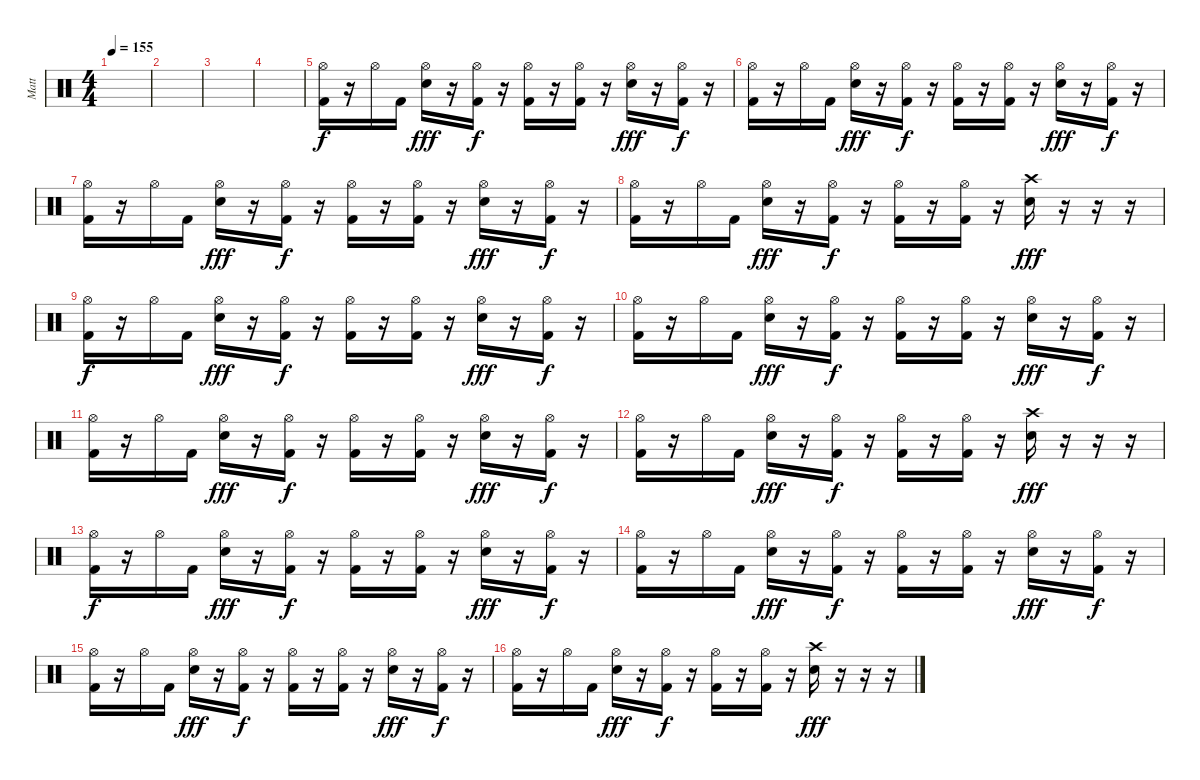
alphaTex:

\track ("Matt" "Matt") {instrument percussion}
\staff {score}
\articulation defaults
\ts (4 4)
\tempo 155
\clef neutral
\ks c
|
|
|
|
("Hi-Hat (open)" "Kick (hit) 2").16 r.16 "Hi-Hat (open)".16 "Kick (hit) 2".16 ("Hi-Hat (open)" "Snare (hit) 2").16{dy fff} r.16 ("Hi-Hat (open)" "Kick (hit) 2").16{dy f} r.16 ("Hi-Hat (open)" "Kick (hit) 2").16 r.16 ("Hi-Hat (open)" "Kick (hit) 2").16 r.16 ("Hi-Hat (open)" "Snare (hit) 2").16{dy fff} r.16 ("Hi-Hat (open)" "Kick (hit) 2").16{dy f} r.16 |
("Hi-Hat (open)" "Kick (hit) 2").16 r.16 "Hi-Hat (open)".16 "Kick (hit) 2".16 ("Hi-Hat (open)" "Snare (hit) 2").16{dy fff} r.16 ("Hi-Hat (open)" "Kick (hit) 2").16{dy f} r.16 ("Hi-Hat (open)" "Kick (hit) 2").16 r.16 ("Hi-Hat (open)" "Kick (hit) 2").16 r.16 ("Hi-Hat (open)" "Snare (hit) 2").16{dy fff} r.16 ("Hi-Hat (open)" "Kick (hit) 2").16{dy f} r.16 |
("Hi-Hat (open)" "Kick (hit) 2").16 r.16 "Hi-Hat (open)".16 "Kick (hit) 2".16 ("Hi-Hat (open)" "Snare (hit) 2").16{dy fff} r.16 ("Hi-Hat (open)" "Kick (hit) 2").16{dy f} r.16 ("Hi-Hat (open)" "Kick (hit) 2").16 r.16 ("Hi-Hat (open)" "Kick (hit) 2").16 r.16 ("Hi-Hat (open)" "Snare (hit) 2").16{dy fff} r.16 ("Hi-Hat (open)" "Kick (hit) 2").16{dy f} r.16 |
("Hi-Hat (open)" "Kick (hit) 2").16 r.16 "Hi-Hat (open)".16 "Kick (hit) 2".16 ("Hi-Hat (open)" "Snare (hit) 2").16{dy fff} r.16 ("Hi-Hat (open)" "Kick (hit) 2").16{dy f} r.16 ("Hi-Hat (open)" "Kick (hit) 2").16 r.16 ("Hi-Hat (open)" "Kick (hit) 2").16 r.16 ("Crash high (hit)" "Snare (hit) 2").16{dy fff} r.16 r.16 r.16 |
("Hi-Hat (open)" "Kick (hit) 2").16{dy f} r.16 "Hi-Hat (open)".16 "Kick (hit) 2".16 ("Hi-Hat (open)" "Snare (hit) 2").16{dy fff} r.16 ("Hi-Hat (open)" "Kick (hit) 2").16{dy f} r.16 ("Hi-Hat (open)" "Kick (hit) 2").16 r.16 ("Hi-Hat (open)" "Kick (hit) 2").16 r.16 ("Hi-Hat (open)" "Snare (hit) 2").16{dy fff} r.16 ("Hi-Hat (open)" "Kick (hit) 2").16{dy f} r.16 |
("Hi-Hat (open)" "Kick (hit) 2").16 r.16 "Hi-Hat (open)".16 "Kick (hit) 2".16 ("Hi-Hat (open)" "Snare (hit) 2").16{dy fff} r.16 ("Hi-Hat (open)" "Kick (hit) 2").16{dy f} r.16 ("Hi-Hat (open)" "Kick (hit) 2").16 r.16 ("Hi-Hat (open)" "Kick (hit) 2").16 r.16 ("Hi-Hat (open)" "Snare (hit) 2").16{dy fff} r.16 ("Hi-Hat (open)" "Kick (hit) 2").16{dy f} r.16 |
("Hi-Hat (open)" "Kick (hit) 2").16 r.16 "Hi-Hat (open)".16 "Kick (hit) 2".16 ("Hi-Hat (open)" "Snare (hit) 2").16{dy fff} r.16 ("Hi-Hat (open)" "Kick (hit) 2").16{dy f} r.16 ("Hi-Hat (open)" "Kick (hit) 2").16 r.16 ("Hi-Hat (open)" "Kick (hit) 2").16 r.16 ("Hi-Hat (open)" "Snare (hit) 2").16{dy fff} r.16 ("Hi-Hat (open)" "Kick (hit) 2").16{dy f} r.16 |
("Hi-Hat (open)" "Kick (hit) 2").16 r.16 "Hi-Hat (open)".16 "Kick (hit) 2".16 ("Hi-Hat (open)" "Snare (hit) 2").16{dy fff} r.16 ("Hi-Hat (open)" "Kick (hit) 2").16{dy f} r.16 ("Hi-Hat (open)" "Kick (hit) 2").16 r.16 ("Hi-Hat (open)" "Kick (hit) 2").16 r.16 ("Crash high (hit)" "Snare (hit) 2").16{dy fff} r.16 r.16 r.16 |
("Hi-Hat (open)" "Kick (hit) 2").16{dy f} r.16 "Hi-Hat (open)".16 "Kick (hit) 2".16 ("Hi-Hat (open)" "Snare (hit) 2").16{dy fff} r.16 ("Hi-Hat (open)" "Kick (hit) 2").16{dy f} r.16 ("Hi-Hat (open)" "Kick (hit) 2").16 r.16 ("Hi-Hat (open)" "Kick (hit) 2").16 r.16 ("Hi-Hat (open)" "Snare (hit) 2").16{dy fff} r.16 ("Hi-Hat (open)" "Kick (hit) 2").16{dy f} r.16 |
("Hi-Hat (open)" "Kick (hit) 2").16 r.16 "Hi-Hat (open)".16 "Kick (hit) 2".16 ("Hi-Hat (open)" "Snare (hit) 2").16{dy fff} r.16 ("Hi-Hat (open)" "Kick (hit) 2").16{dy f} r.16 ("Hi-Hat (open)" "Kick (hit) 2").16 r.16 ("Hi-Hat (open)" "Kick (hit) 2").16 r.16 ("Hi-Hat (open)" "Snare (hit) 2").16{dy fff} r.16 ("Hi-Hat (open)" "Kick (hit) 2").16{dy f} r.16 |
("Hi-Hat (open)" "Kick (hit) 2").16 r.16 "Hi-Hat (open)".16 "Kick (hit) 2".16 ("Hi-Hat (open)" "Snare (hit) 2").16{dy fff} r.16 ("Hi-Hat (open)" "Kick (hit) 2").16{dy f} r.16 ("Hi-Hat (open)" "Kick (hit) 2").16 r.16 ("Hi-Hat (open)" "Kick (hit) 2").16 r.16 ("Hi-Hat (open)" "Snare (hit) 2").16{dy fff} r.16 ("Hi-Hat (open)" "Kick (hit) 2").16{dy f} r.16 |
("Hi-Hat (open)" "Kick (hit) 2").16 r.16 "Hi-Hat (open)".16 "Kick (hit) 2".16 ("Hi-Hat (open)" "Snare (hit) 2").16{dy fff} r.16 ("Hi-Hat (open)" "Kick (hit) 2").16{dy f} r.16 ("Hi-Hat (open)" "Kick (hit) 2").16 r.16 ("Hi-Hat (open)" "Kick (hit) 2").16 r.16 ("Crash high (hit)" "Snare (hit) 2").16{dy fff} r.16 r.16 r.16
